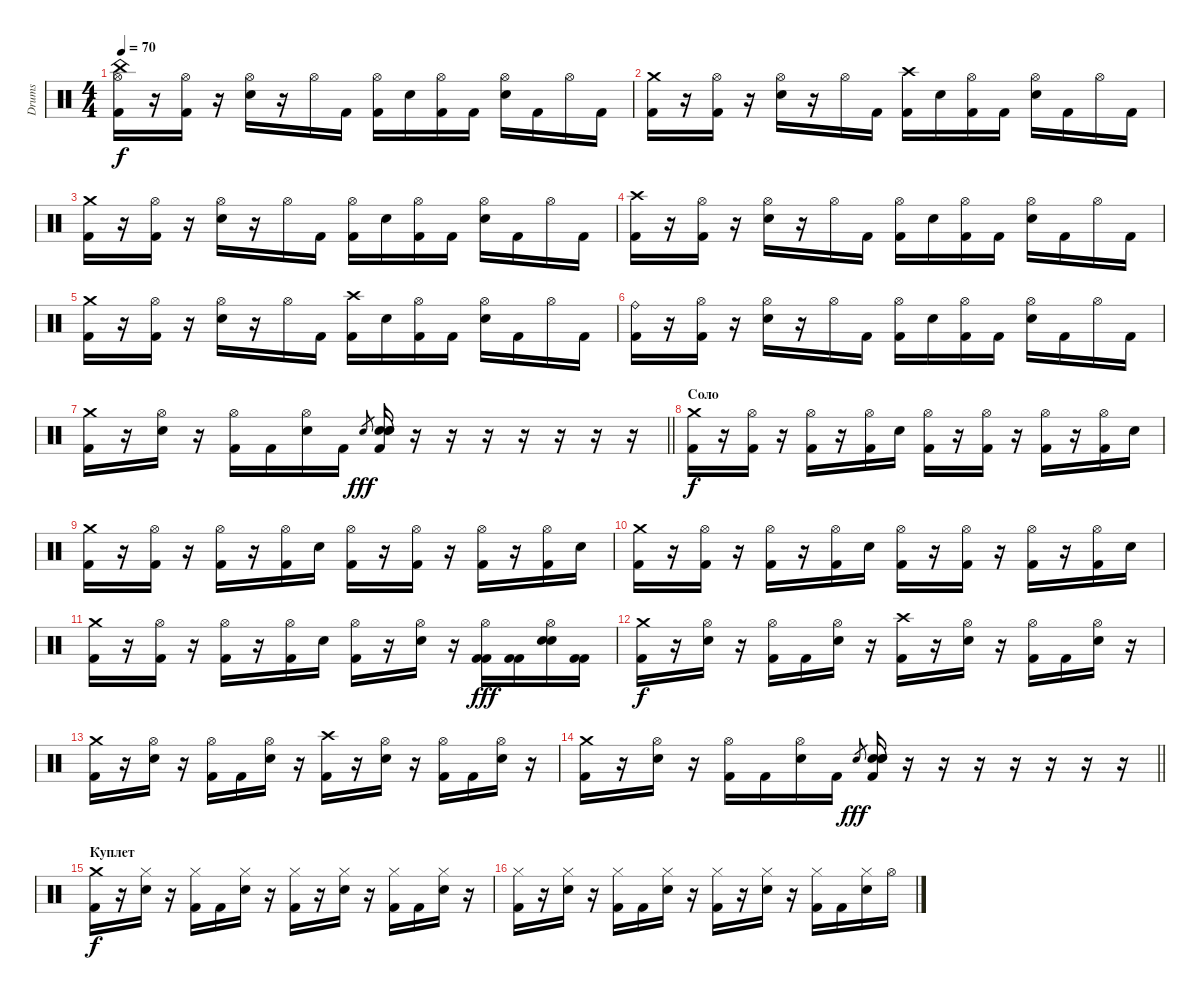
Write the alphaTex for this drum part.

\track ("Drums" "Drums") {instrument percussion}
\staff {score}
\articulation defaults
\ts (4 4)
\tempo 70
\clef neutral
\ks c
("Hi-Hat (open)" "Kick (hit) 2" "China (hit)").16{dy f} r.16 ("Hi-Hat (open)" "Kick (hit) 2").16 r.16 ("Hi-Hat (open)" "Electric Snare (hit)").16 r.16 "Hi-Hat (open)".16 "Kick (hit) 2".16 ("Hi-Hat (open)" "Kick (hit) 2").16 "Electric Snare (hit)".16 ("Hi-Hat (open)" "Kick (hit) 2").16 "Kick (hit) 2".16 ("Hi-Hat (open)" "Electric Snare (hit)").16 "Kick (hit) 2".16 "Hi-Hat (open)".16 "Kick (hit) 2".16 |
("Crash medium (hit)" "Kick (hit) 2").16 r.16 ("Hi-Hat (open)" "Kick (hit) 2").16 r.16 ("Hi-Hat (open)" "Electric Snare (hit)").16 r.16 "Hi-Hat (open)".16 "Kick (hit) 2".16 ("Crash high (hit)" "Kick (hit) 2").16 "Electric Snare (hit)".16 ("Hi-Hat (open)" "Kick (hit) 2").16 "Kick (hit) 2".16 ("Hi-Hat (open)" "Electric Snare (hit)").16 "Kick (hit) 2".16 "Hi-Hat (open)".16 "Kick (hit) 2".16 |
("Crash medium (hit)" "Kick (hit) 2").16 r.16 ("Hi-Hat (open)" "Kick (hit) 2").16 r.16 ("Hi-Hat (open)" "Electric Snare (hit)").16 r.16 "Hi-Hat (open)".16 "Kick (hit) 2".16 ("Hi-Hat (open)" "Kick (hit) 2").16 "Electric Snare (hit)".16 ("Hi-Hat (open)" "Kick (hit) 2").16 "Kick (hit) 2".16 ("Hi-Hat (open)" "Electric Snare (hit)").16 "Kick (hit) 2".16 "Hi-Hat (open)".16 "Kick (hit) 2".16 |
("Crash high (hit)" "Kick (hit) 2").16 r.16 ("Hi-Hat (open)" "Kick (hit) 2").16 r.16 ("Hi-Hat (open)" "Electric Snare (hit)").16 r.16 "Hi-Hat (open)".16 "Kick (hit) 2".16 ("Hi-Hat (open)" "Kick (hit) 2").16 "Electric Snare (hit)".16 ("Hi-Hat (open)" "Kick (hit) 2").16 "Kick (hit) 2".16 ("Hi-Hat (open)" "Electric Snare (hit)").16 "Kick (hit) 2".16 "Hi-Hat (open)".16 "Kick (hit) 2".16 |
("Crash medium (hit)" "Kick (hit) 2").16 r.16 ("Hi-Hat (open)" "Kick (hit) 2").16 r.16 ("Hi-Hat (open)" "Electric Snare (hit)").16 r.16 "Hi-Hat (open)".16 "Kick (hit) 2".16 ("Crash high (hit)" "Kick (hit) 2").16 "Electric Snare (hit)".16 ("Hi-Hat (open)" "Kick (hit) 2").16 "Kick (hit) 2".16 ("Hi-Hat (open)" "Electric Snare (hit)").16 "Kick (hit) 2".16 "Hi-Hat (open)".16 "Kick (hit) 2".16 |
("Ride (bell)" "Kick (hit) 2").16 r.16 ("Hi-Hat (open)" "Kick (hit) 2").16 r.16 ("Hi-Hat (open)" "Electric Snare (hit)").16 r.16 "Hi-Hat (open)".16 "Kick (hit) 2".16 ("Hi-Hat (open)" "Kick (hit) 2").16 "Electric Snare (hit)".16 ("Hi-Hat (open)" "Kick (hit) 2").16 "Kick (hit) 2".16 ("Hi-Hat (open)" "Electric Snare (hit)").16 "Kick (hit) 2".16 "Hi-Hat (open)".16 "Kick (hit) 2".16 |
\barLineRight lightlight
("Crash medium (hit)" "Kick (hit) 2").16 r.16 ("Hi-Hat (open)" "Electric Snare (hit)").16 r.16 ("Hi-Hat (open)" "Kick (hit) 2").16 "Kick (hit) 2".16 ("Hi-Hat (open)" "Electric Snare (hit)").16 "Kick (hit) 2".16 "Snare (hit) 2".8{gr dy fff} ("Electric Snare (hit)" "Snare (hit) 2" "Snare (hit) 2" "Kick (hit) 2").16 r.16 r.16 r.16 r.16 r.16 r.16 r.16 |
\section ("" "Соло")
("Crash medium (hit)" "Kick (hit) 2").16{dy f} r.16 ("Hi-Hat (open)" "Kick (hit) 2").16 r.16 ("Hi-Hat (open)" "Kick (hit) 2").16 r.16 ("Hi-Hat (open)" "Kick (hit) 2").16 "Electric Snare (hit)".16 ("Hi-Hat (open)" "Kick (hit) 2").16 r.16 ("Hi-Hat (open)" "Kick (hit) 2").16 r.16 ("Hi-Hat (open)" "Kick (hit) 2").16 r.16 ("Hi-Hat (open)" "Kick (hit) 2").16 "Electric Snare (hit)".16 |
("Crash medium (hit)" "Kick (hit) 2").16 r.16 ("Hi-Hat (open)" "Kick (hit) 2").16 r.16 ("Hi-Hat (open)" "Kick (hit) 2").16 r.16 ("Hi-Hat (open)" "Kick (hit) 2").16 "Electric Snare (hit)".16 ("Hi-Hat (open)" "Kick (hit) 2").16 r.16 ("Hi-Hat (open)" "Kick (hit) 2").16 r.16 ("Hi-Hat (open)" "Kick (hit) 2").16 r.16 ("Hi-Hat (open)" "Kick (hit) 2").16 "Electric Snare (hit)".16 |
("Crash medium (hit)" "Kick (hit) 2").16 r.16 ("Hi-Hat (open)" "Kick (hit) 2").16 r.16 ("Hi-Hat (open)" "Kick (hit) 2").16 r.16 ("Hi-Hat (open)" "Kick (hit) 2").16 "Electric Snare (hit)".16 ("Hi-Hat (open)" "Kick (hit) 2").16 r.16 ("Hi-Hat (open)" "Kick (hit) 2").16 r.16 ("Hi-Hat (open)" "Kick (hit) 2").16 r.16 ("Hi-Hat (open)" "Kick (hit) 2").16 "Electric Snare (hit)".16 |
("Crash medium (hit)" "Kick (hit) 2").16 r.16 ("Hi-Hat (open)" "Kick (hit) 2").16 r.16 ("Hi-Hat (open)" "Kick (hit) 2").16 r.16 ("Hi-Hat (open)" "Kick (hit) 2").16 "Electric Snare (hit)".16 ("Hi-Hat (open)" "Kick (hit) 2").16 r.16 ("Hi-Hat (open)" "Electric Snare (hit)").16 r.16 ("Hi-Hat (open)" "Kick (hit) 2" "Kick (hit) 2").16{dy fff} ("Kick (hit) 2" "Kick (hit) 2").16 ("Hi-Hat (open)" "Electric Snare (hit)" "Snare (hit) 2").16 ("Kick (hit) 2" "Kick (hit) 2").16 |
("Crash medium (hit)" "Kick (hit) 2").16{dy f} r.16 ("Hi-Hat (open)" "Electric Snare (hit)").16 r.16 ("Hi-Hat (open)" "Kick (hit) 2").16 "Kick (hit) 2".16 ("Hi-Hat (open)" "Electric Snare (hit)").16 r.16 ("Crash high (hit)" "Kick (hit) 2").16 r.16 ("Hi-Hat (open)" "Electric Snare (hit)").16 r.16 ("Hi-Hat (open)" "Kick (hit) 2").16 "Kick (hit) 2".16 ("Hi-Hat (open)" "Electric Snare (hit)").16 r.16 |
("Crash medium (hit)" "Kick (hit) 2").16 r.16 ("Hi-Hat (open)" "Electric Snare (hit)").16 r.16 ("Hi-Hat (open)" "Kick (hit) 2").16 "Kick (hit) 2".16 ("Hi-Hat (open)" "Electric Snare (hit)").16 r.16 ("Crash high (hit)" "Kick (hit) 2").16 r.16 ("Hi-Hat (open)" "Electric Snare (hit)").16 r.16 ("Hi-Hat (open)" "Kick (hit) 2").16 "Kick (hit) 2".16 ("Hi-Hat (open)" "Electric Snare (hit)").16 r.16 |
\barLineRight lightlight
("Crash medium (hit)" "Kick (hit) 2").16 r.16 ("Hi-Hat (open)" "Electric Snare (hit)").16 r.16 ("Hi-Hat (open)" "Kick (hit) 2").16 "Kick (hit) 2".16 ("Hi-Hat (open)" "Electric Snare (hit)").16 "Kick (hit) 2".16 "Snare (hit) 2".8{gr dy fff} ("Electric Snare (hit)" "Snare (hit) 2" "Snare (hit) 2" "Kick (hit) 2").16 r.16 r.16 r.16 r.16 r.16 r.16 r.16 |
\section ("" "Куплет")
("Crash medium (hit)" "Kick (hit) 2").16{dy f} r.16 ("Hi-Hat (closed)" "Electric Snare (hit)").16 r.16 ("Hi-Hat (closed)" "Kick (hit) 2").16 "Kick (hit) 2".16 ("Hi-Hat (closed)" "Electric Snare (hit)").16 r.16 ("Hi-Hat (closed)" "Kick (hit) 2").16 r.16 ("Hi-Hat (closed)" "Electric Snare (hit)").16 r.16 ("Hi-Hat (closed)" "Kick (hit) 2").16 "Kick (hit) 2".16 ("Hi-Hat (closed)" "Electric Snare (hit)").16 r.16 |
("Hi-Hat (closed)" "Kick (hit) 2").16 r.16 ("Hi-Hat (closed)" "Electric Snare (hit)").16 r.16 ("Hi-Hat (closed)" "Kick (hit) 2").16 "Kick (hit) 2".16 ("Hi-Hat (closed)" "Electric Snare (hit)").16 r.16 ("Hi-Hat (closed)" "Kick (hit) 2").16 r.16 ("Hi-Hat (closed)" "Electric Snare (hit)").16 r.16 ("Hi-Hat (closed)" "Kick (hit) 2").16 "Kick (hit) 2".16 ("Hi-Hat (closed)" "Electric Snare (hit)").16 "Hi-Hat (open)".16
